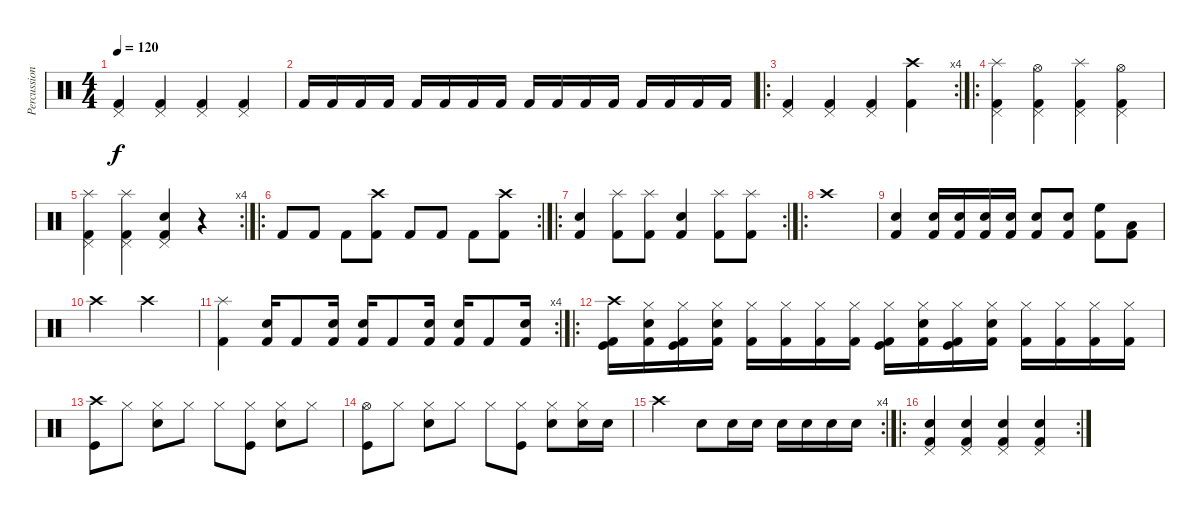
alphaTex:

\track ("Percussions Michael" "Percussion") {instrument percussion}
\staff {score}
\articulation defaults
\ts (4 4)
\tempo 120
\clef neutral
\ks c
("Pedal Hi-Hat (hit)" "Kick (hit) 2").4{dy f} ("Pedal Hi-Hat (hit)" "Kick (hit) 2").4 ("Pedal Hi-Hat (hit)" "Kick (hit) 2").4 ("Pedal Hi-Hat (hit)" "Kick (hit) 2").4 |
"Kick (hit) 2".16 "Kick (hit) 2".16 "Kick (hit) 2".16 "Kick (hit) 2".16 "Kick (hit) 2".16 "Kick (hit) 2".16 "Kick (hit) 2".16 "Kick (hit) 2".16 "Kick (hit) 2".16 "Kick (hit) 2".16 "Kick (hit) 2".16 "Kick (hit) 2".16 "Kick (hit) 2".16 "Kick (hit) 2".16 "Kick (hit) 2".16 "Kick (hit) 2".16 |
\ro
\rc 4
("Pedal Hi-Hat (hit)" "Kick (hit) 2").4 ("Pedal Hi-Hat (hit)" "Kick (hit) 2").4 ("Pedal Hi-Hat (hit)" "Kick (hit) 2").4 ("Crash high (hit)" "Kick (hit) 2").4 |
\ro
("Pedal Hi-Hat (hit)" "Splash (hit)" "Kick (hit) 2").4 ("Pedal Hi-Hat (hit)" "Hi-Hat (open)" "Kick (hit) 2").4 ("Pedal Hi-Hat (hit)" "Splash (hit)" "Kick (hit) 2").4 ("Pedal Hi-Hat (hit)" "Hi-Hat (open)" "Kick (hit) 2").4 |
\rc 4
("Pedal Hi-Hat (hit)" "Splash (hit)" "Kick (hit) 2").4 ("Pedal Hi-Hat (hit)" "Splash (hit)" "Kick (hit) 2").4 ("Pedal Hi-Hat (hit)" "Snare (hit) 2" "Kick (hit) 2").4 r.4 |
\ro
\rc 2 "Kick (hit) 2".8 "Kick (hit) 2".8 "Kick (hit) 2".8
("Crash high (hit)" "Kick (hit) 2").8 "Kick (hit) 2".8 "Kick (hit) 2".8 "Kick (hit) 2".8 ("Crash high (hit)" "Kick (hit) 2").8 |
\ro
\rc 2
("Snare (hit) 2" "Kick (hit) 2").4 ("Splash (hit)" "Kick (hit) 2").8 ("Splash (hit)" "Kick (hit) 2").8 ("Snare (hit) 2" "Kick (hit) 2").4 ("Splash (hit)" "Kick (hit) 2").8 ("Splash (hit)" "Kick (hit) 2").8 |
\ro "Crash high (hit)".1
|
("Electric Snare (hit)" "Kick (hit) 2").4 ("Electric Snare (hit)" "Kick (hit) 2").16 ("Electric Snare (hit)" "Kick (hit) 2").16 ("Electric Snare (hit)" "Kick (hit) 2").16 ("Electric Snare (hit)" "Kick (hit) 2").16 ("Electric Snare (hit)" "Kick (hit) 2").8 ("Electric Snare (hit)" "Kick (hit) 2").8 ("High Floor Tom (hit)" "Kick (hit) 2").8 ("Low Tom (hit)" "Kick (hit) 2").8 |
"Crash high (hit)".2 "Crash high (hit)".2 |
\rc 4
("Splash (hit)" "Kick (hit) 2").4 ("Electric Snare (hit)" "Kick (hit) 2").16 "Kick (hit) 2".8 ("Electric Snare (hit)" "Kick (hit) 2").16 ("Electric Snare (hit)" "Kick (hit) 2").16 "Kick (hit) 2".8 ("Electric Snare (hit)" "Kick (hit) 2").16 ("Electric Snare (hit)" "Kick (hit) 2").16 "Kick (hit) 2".8 ("Electric Snare (hit)" "Kick (hit) 2").16 |
\ro
("Crash high (hit)" "Kick (hit)" "Kick (hit) 2").16 ("Hi-Hat (closed)" "Electric Snare (hit)" "Kick (hit) 2").16 ("Hi-Hat (closed)" "Kick (hit)" "Kick (hit) 2").16 ("Hi-Hat (closed)" "Electric Snare (hit)" "Kick (hit) 2").16 ("Hi-Hat (closed)" "Kick (hit) 2").16 ("Hi-Hat (closed)" "Kick (hit) 2").16 ("Hi-Hat (closed)" "Kick (hit) 2").16 ("Hi-Hat (closed)" "Kick (hit) 2").16 ("Hi-Hat (closed)" "Kick (hit)" "Kick (hit) 2").16 ("Hi-Hat (closed)" "Electric Snare (hit)" "Kick (hit) 2").16 ("Hi-Hat (closed)" "Kick (hit)" "Kick (hit) 2").16 ("Hi-Hat (closed)" "Electric Snare (hit)" "Kick (hit) 2").16 ("Hi-Hat (closed)" "Kick (hit) 2").16 ("Hi-Hat (closed)" "Kick (hit) 2").16 ("Hi-Hat (closed)" "Kick (hit) 2").16 ("Hi-Hat (closed)" "Kick (hit) 2").16 |
("Crash high (hit)" "Kick (hit)").8 "Hi-Hat (closed)".8 ("Hi-Hat (closed)" "Electric Snare (hit)").8 "Hi-Hat (closed)".8 "Hi-Hat (closed)".8 ("Hi-Hat (closed)" "Kick (hit)").8 ("Hi-Hat (closed)" "Electric Snare (hit)").8 "Hi-Hat (closed)".8 |
("Hi-Hat (open)" "Kick (hit)").8 "Hi-Hat (closed)".8 ("Hi-Hat (closed)" "Electric Snare (hit)").8 "Hi-Hat (closed)".8 "Hi-Hat (closed)".8 ("Hi-Hat (closed)" "Kick (hit)").8 ("Hi-Hat (closed)" "Electric Snare (hit)").8 ("Hi-Hat (closed)" "Electric Snare (hit)").16 "Electric Snare (hit)".16 |
\rc 4 "Crash high (hit)".2 "Electric Snare (hit)".8 "Electric Snare (hit)".16 "Electric Snare (hit)".16 "Electric Snare (hit)".16 "Electric Snare (hit)".16 "Electric Snare (hit)".16 "Electric Snare (hit)".16
|
\ro
\rc 2
("Electric Snare (hit)" "Kick (hit) 2" "Pedal Hi-Hat (hit)").4 ("Electric Snare (hit)" "Kick (hit) 2" "Pedal Hi-Hat (hit)").4 ("Electric Snare (hit)" "Kick (hit) 2" "Pedal Hi-Hat (hit)").4 ("Electric Snare (hit)" "Kick (hit) 2" "Pedal Hi-Hat (hit)").4
